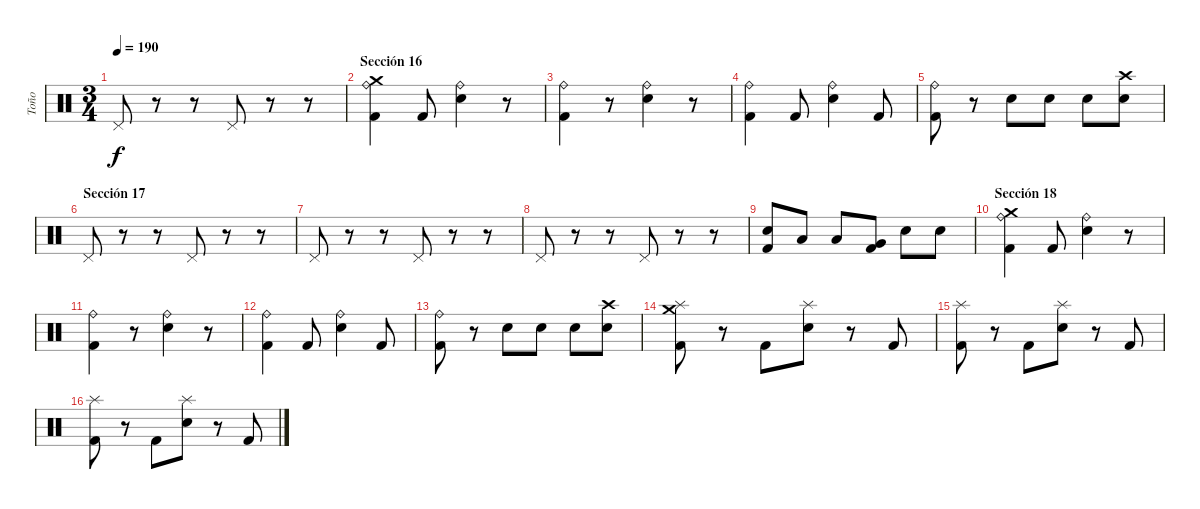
\track ("Toño" "Toño") {instrument percussion}
\staff {score}
\articulation defaults
\ts (3 4)
\tempo 190
\clef neutral
\ks c "Pedal Hi-Hat (hit)".8{dy f}
r.8 r.8 "Pedal Hi-Hat (hit)".8 r.8 r.8 |
\section ("" "Sección 16")
("Ride (bell)" "Crash medium (hit)" "Kick (hit) 2").4 "Kick (hit) 2".8 ("Ride (bell)" "Electric Snare (hit)").4 r.8 |
("Ride (bell)" "Kick (hit) 2").4 r.8 ("Ride (bell)" "Electric Snare (hit)").4 r.8 |
("Ride (bell)" "Kick (hit) 2").4 "Kick (hit) 2".8 ("Ride (bell)" "Electric Snare (hit)").4 "Kick (hit) 2".8 |
("Ride (bell)" "Kick (hit) 2").8 r.8 "Electric Snare (hit)".8 "Electric Snare (hit)".8 "Electric Snare (hit)".8 ("Crash high (hit)" "Electric Snare (hit)").8 |
\section ("" "Sección 17")
"Pedal Hi-Hat (hit)".8 r.8 r.8 "Pedal Hi-Hat (hit)".8 r.8 r.8 |
"Pedal Hi-Hat (hit)".8 r.8 r.8 "Pedal Hi-Hat (hit)".8 r.8 r.8 |
"Pedal Hi-Hat (hit)".8 r.8 r.8 "Pedal Hi-Hat (hit)".8 r.8 r.8 |
("Electric Snare (hit)" "Kick (hit) 2").8 "Low Tom (hit)".8 "Low Tom (hit)".8 ("Very Low Tom (hit)" "Kick (hit) 2").8 "Electric Snare (hit)".8 "Electric Snare (hit)".8 |
\section ("" "Sección 18")
("Ride (bell)" "Crash medium (hit)" "Kick (hit) 2").4 "Kick (hit) 2".8 ("Ride (bell)" "Electric Snare (hit)").4 r.8 |
("Ride (bell)" "Kick (hit) 2").4 r.8 ("Ride (bell)" "Electric Snare (hit)").4 r.8 |
("Ride (bell)" "Kick (hit) 2").4 "Kick (hit) 2".8 ("Ride (bell)" "Electric Snare (hit)").4 "Kick (hit) 2".8 |
("Ride (bell)" "Kick (hit) 2").8 r.8 "Electric Snare (hit)".8 "Electric Snare (hit)".8 "Electric Snare (hit)".8 ("Crash high (hit)" "Electric Snare (hit)").8 |
\section ("" "")
("Splash (hit)" "Crash medium (hit)" "Kick (hit) 2").8 r.8 "Kick (hit) 2".8 ("Splash (hit)" "Electric Snare (hit)").8 r.8 "Kick (hit) 2".8 |
("Splash (hit)" "Kick (hit) 2").8 r.8 "Kick (hit) 2".8 ("Splash (hit)" "Electric Snare (hit)").8 r.8 "Kick (hit) 2".8 |
("Splash (hit)" "Kick (hit) 2").8 r.8 "Kick (hit) 2".8 ("Splash (hit)" "Electric Snare (hit)").8 r.8 "Kick (hit) 2".8
